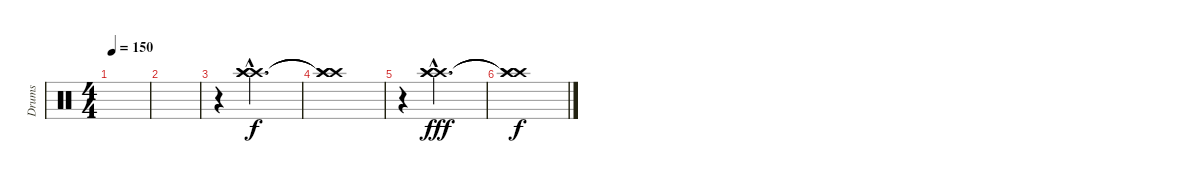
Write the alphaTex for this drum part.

\track ("Drums" "Drums") {instrument percussion}
\staff {score}
\articulation defaults
\ts (4 4)
\tempo 150
\clef neutral
\ks c
|
|
r.4 ("Crash high (hit)"{hac} "Crash high (hit)"{hac} "Crash high (hit)"{hac}).2{d} |
("Crash high (hit)"{t} "Crash high (hit)"{t} "Crash high (hit)"{t}).1{dy f} |
r.4 ("Crash high (hit)"{hac} "Crash high (hit)"{hac} "Crash high (hit)"{hac}).2{d dy fff} |
("Crash high (hit)"{t} "Crash high (hit)"{t} "Crash high (hit)"{t}).1{dy f}
